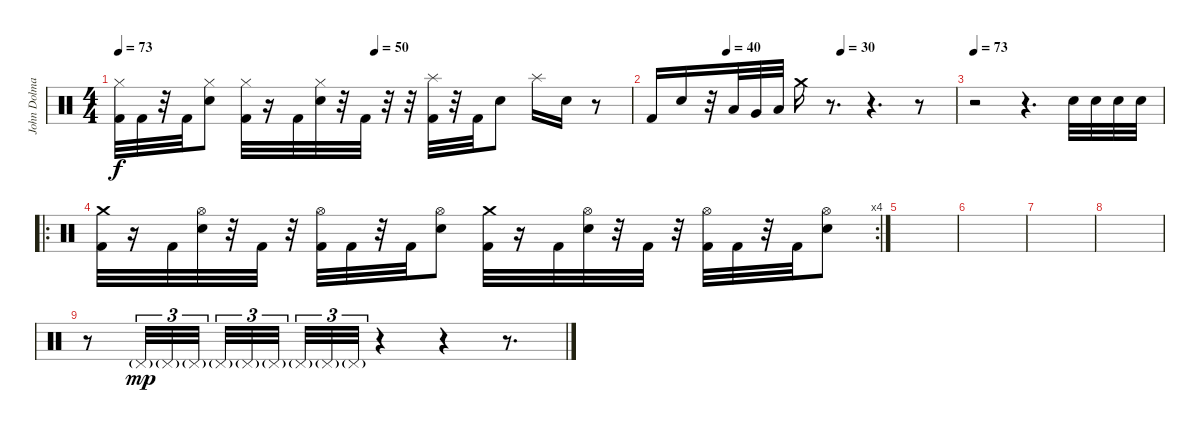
\track ("John Dolmayan (Drums)" "John Dolma") {instrument percussion}
\staff {score}
\articulation defaults
\ts (4 4)
\tempo 73
\tempo (50 0.5)
\clef neutral
\ks c
("Hi-Hat (closed)" "Kick (hit) 2").32{dy f} "Kick (hit) 2".32 r.32 "Kick (hit) 2".32 ("Hi-Hat (closed)" "Electric Snare (hit)").8 ("Hi-Hat (closed)" "Kick (hit) 2").32 r.16 "Kick (hit) 2".32 ("Hi-Hat (closed)" "Electric Snare (hit)").32 r.32 "Kick (hit) 2".32 r.32 r.32 ("Splash (hit)" "Kick (hit) 2").32 r.32 "Kick (hit) 2".32 "Electric Snare (hit)".8 "Splash (hit)".16 "Electric Snare (hit)".16 r.8 |
\tempo (40 0.25)
\tempo (30 0.625)
"Kick (hit) 2".16 "Electric Snare (hit)".16 r.32 "Low Tom (hit)".32 "Very Low Tom (hit)".32 "Low Floor Tom (hit)".32 "Crash medium (hit)".16 r.8{d} r.4{d} r.8 |
\tempo 73
r.2 r.4{d} "Electric Snare (hit)".32 "Electric Snare (hit)".32 "Electric Snare (hit)".32 "Electric Snare (hit)".32 |
\ro
\rc 4
("Crash medium (hit)" "Kick (hit) 2").32 r.16 "Kick (hit) 2".32 ("Hi-Hat (open)" "Electric Snare (hit)").32 r.32 "Kick (hit) 2".32 r.32 ("Hi-Hat (open)" "Kick (hit) 2").32 "Kick (hit) 2".32 r.32 "Kick (hit) 2".32 ("Hi-Hat (open)" "Electric Snare (hit)").8 ("Crash medium (hit)" "Kick (hit) 2").32 r.16 "Kick (hit) 2".32 ("Hi-Hat (open)" "Electric Snare (hit)").32 r.32 "Kick (hit) 2".32 r.32 ("Hi-Hat (open)" "Kick (hit) 2").32 "Kick (hit) 2".32 r.32 "Kick (hit) 2".32 ("Hi-Hat (open)" "Electric Snare (hit)").8 |
|
|
|
|
r.8 "Pedal Hi-Hat (hit)"{g}.32{tu (3 2) dy mp volume 8} "Pedal Hi-Hat (hit)"{g}.32{tu (3 2)} "Pedal Hi-Hat (hit)"{g}.32{tu (3 2) beam splitsecondary} "Pedal Hi-Hat (hit)"{g}.32{tu (3 2)} "Pedal Hi-Hat (hit)"{g}.32{tu (3 2)} "Pedal Hi-Hat (hit)"{g}.32{tu (3 2)} "Pedal Hi-Hat (hit)"{g}.32{tu (3 2)} "Pedal Hi-Hat (hit)"{g}.32{tu (3 2)} "Pedal Hi-Hat (hit)"{g}.32{tu (3 2)} r.4 r.4 r.8{d}
